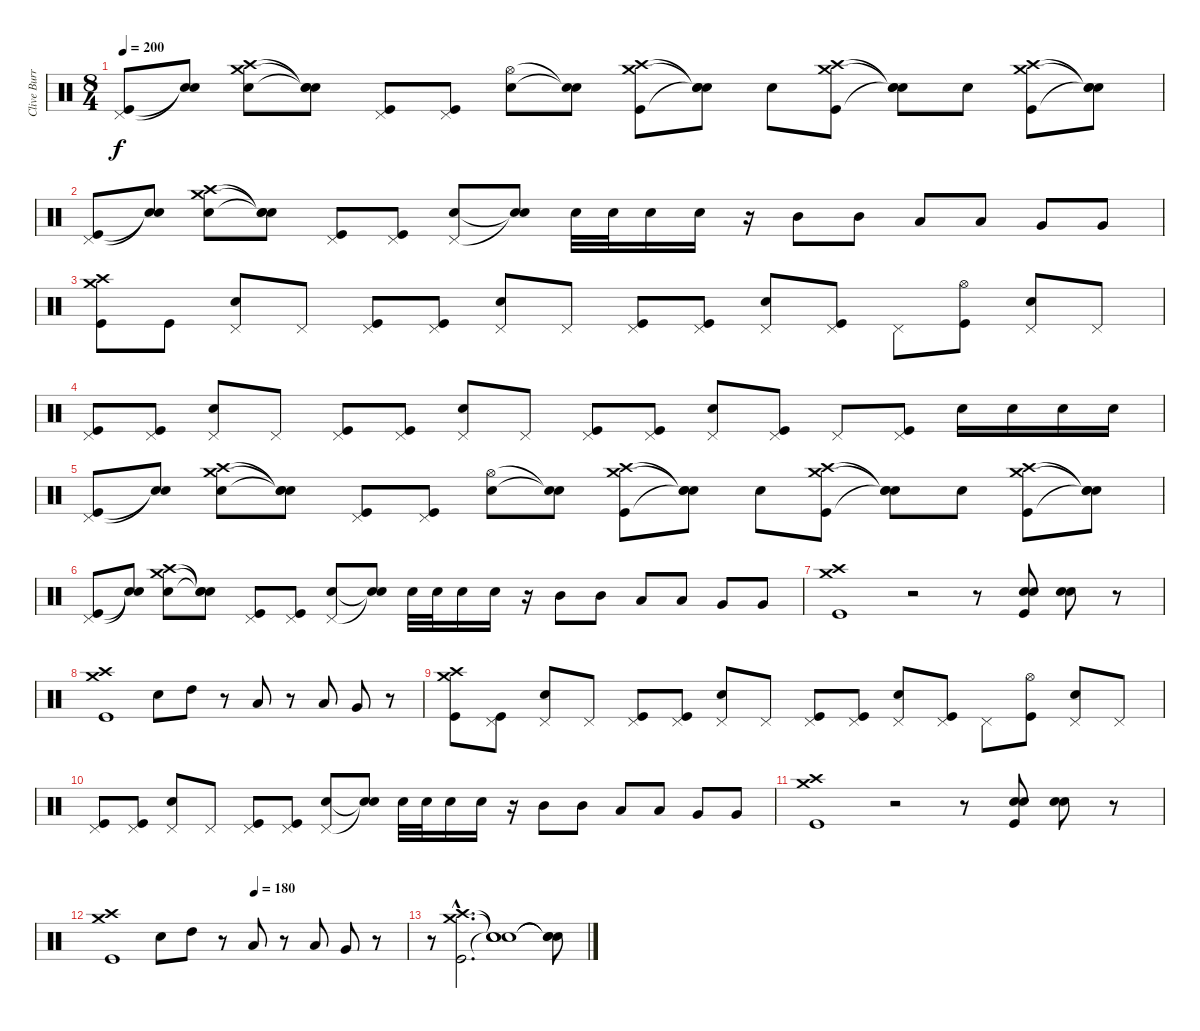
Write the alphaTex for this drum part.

\track ("Clive Burr" "Clive Burr") {instrument percussion}
\staff {score}
\articulation defaults
\ts (8 4)
\tempo 200
\clef neutral
\ks c
("Pedal Hi-Hat (hit)" "Kick (hit)").8{dy f} ("Snare (hit)"{t} "Snare (hit)"{t}).8 ("Crash medium (hit)" "Crash high (hit)" "Snare (hit) 2").8 ("Snare (hit)"{t} "Snare (hit)"{t} "Snare (hit)"{t}).8 ("Pedal Hi-Hat (hit)" "Kick (hit)").8 ("Pedal Hi-Hat (hit)" "Kick (hit)").8 ("Hi-Hat (open)" "Snare (hit) 2").8 ("Snare (hit)"{t} "Snare (hit)"{t}).8 ("Crash medium (hit)" "Crash high (hit)" "Kick (hit)").8 ("Snare (hit)"{t} "Snare (hit)"{t} "Snare (hit)"{t}).8 "Snare (hit) 2".8 ("Crash medium (hit)" "Crash high (hit)" "Kick (hit)").8 ("Snare (hit)"{t} "Snare (hit)"{t} "Snare (hit)"{t}).8 "Snare (hit) 2".8 ("Crash medium (hit)" "Crash high (hit)" "Kick (hit)").8 ("Snare (hit)"{t} "Snare (hit)"{t} "Snare (hit)"{t}).8 |
("Pedal Hi-Hat (hit)" "Kick (hit)").8 ("Snare (hit)"{t} "Snare (hit)"{t}).8 ("Crash medium (hit)" "Crash high (hit)" "Snare (hit) 2").8 ("Snare (hit)"{t} "Snare (hit)"{t} "Snare (hit)"{t}).8 ("Pedal Hi-Hat (hit)" "Kick (hit)").8 ("Pedal Hi-Hat (hit)" "Kick (hit)").8 ("Pedal Hi-Hat (hit)" "Snare (hit) 2").8 ("Snare (hit)"{t} "Snare (hit)"{t}).8 "Snare (hit) 2".32 "Snare (hit) 2".32 "Snare (hit) 2".16 "Snare (hit) 2".16 r.16 "Mid Tom (hit)".8 "Mid Tom (hit)".8 "Low Tom (hit)".8 "Low Tom (hit)".8 "Very Low Tom (hit)".8 "Very Low Tom (hit)".8 |
("Crash medium (hit)" "Crash high (hit)" "Kick (hit)").8 "Kick (hit)".8 ("Pedal Hi-Hat (hit)" "Snare (hit) 2").8 "Pedal Hi-Hat (hit)".8 ("Pedal Hi-Hat (hit)" "Kick (hit)").8 ("Pedal Hi-Hat (hit)" "Kick (hit)").8 ("Pedal Hi-Hat (hit)" "Snare (hit) 2").8 "Pedal Hi-Hat (hit)".8 ("Pedal Hi-Hat (hit)" "Kick (hit)").8 ("Pedal Hi-Hat (hit)" "Kick (hit)").8 ("Pedal Hi-Hat (hit)" "Snare (hit) 2").8 ("Pedal Hi-Hat (hit)" "Kick (hit)").8 "Pedal Hi-Hat (hit)".8 ("Hi-Hat (open)" "Kick (hit)").8 ("Pedal Hi-Hat (hit)" "Snare (hit) 2").8 "Pedal Hi-Hat (hit)".8 |
("Pedal Hi-Hat (hit)" "Kick (hit)").8 ("Pedal Hi-Hat (hit)" "Kick (hit)").8 ("Pedal Hi-Hat (hit)" "Snare (hit) 2").8 "Pedal Hi-Hat (hit)".8 ("Pedal Hi-Hat (hit)" "Kick (hit)").8 ("Pedal Hi-Hat (hit)" "Kick (hit)").8 ("Pedal Hi-Hat (hit)" "Snare (hit) 2").8 "Pedal Hi-Hat (hit)".8 ("Pedal Hi-Hat (hit)" "Kick (hit)").8 ("Pedal Hi-Hat (hit)" "Kick (hit)").8 ("Pedal Hi-Hat (hit)" "Snare (hit) 2").8 ("Pedal Hi-Hat (hit)" "Kick (hit)").8 "Pedal Hi-Hat (hit)".8 ("Pedal Hi-Hat (hit)" "Kick (hit)").8 "Snare (hit) 2".16 "Snare (hit) 2".16 "Snare (hit) 2".16 "Snare (hit) 2".16 |
("Pedal Hi-Hat (hit)" "Kick (hit)").8 ("Snare (hit)"{t} "Snare (hit)"{t}).8 ("Crash medium (hit)" "Crash high (hit)" "Snare (hit) 2").8 ("Snare (hit)"{t} "Snare (hit)"{t} "Snare (hit)"{t}).8 ("Pedal Hi-Hat (hit)" "Kick (hit)").8 ("Pedal Hi-Hat (hit)" "Kick (hit)").8 ("Hi-Hat (open)" "Snare (hit) 2").8 ("Snare (hit)"{t} "Snare (hit)"{t}).8 ("Crash medium (hit)" "Crash high (hit)" "Kick (hit)").8 ("Snare (hit)"{t} "Snare (hit)"{t} "Snare (hit)"{t}).8 "Snare (hit) 2".8 ("Crash medium (hit)" "Crash high (hit)" "Kick (hit)").8 ("Snare (hit)"{t} "Snare (hit)"{t} "Snare (hit)"{t}).8 "Snare (hit) 2".8 ("Crash medium (hit)" "Crash high (hit)" "Kick (hit)").8 ("Snare (hit)"{t} "Snare (hit)"{t} "Snare (hit)"{t}).8 |
("Pedal Hi-Hat (hit)" "Kick (hit)").8 ("Snare (hit)"{t} "Snare (hit)"{t}).8 ("Crash medium (hit)" "Crash high (hit)" "Snare (hit) 2").8 ("Snare (hit)"{t} "Snare (hit)"{t} "Snare (hit)"{t}).8 ("Pedal Hi-Hat (hit)" "Kick (hit)").8 ("Pedal Hi-Hat (hit)" "Kick (hit)").8 ("Pedal Hi-Hat (hit)" "Snare (hit) 2").8 ("Snare (hit)"{t} "Snare (hit)"{t}).8 "Snare (hit) 2".32 "Snare (hit) 2".32 "Snare (hit) 2".16 "Snare (hit) 2".16 r.16 "Mid Tom (hit)".8 "Mid Tom (hit)".8 "Low Tom (hit)".8 "Low Tom (hit)".8 "Very Low Tom (hit)".8 "Very Low Tom (hit)".8 |
("Crash medium (hit)" "Crash high (hit)" "Kick (hit)").1 r.2 r.8 ("Snare (hit) 2" "Snare (hit) 2" "Kick (hit)").8 ("Snare (hit) 2" "Snare (hit) 2").8 r.8 |
("Crash medium (hit)" "Crash high (hit)" "Kick (hit)").1 "Snare (hit) 2".8 "High Tom (hit)".8 r.8 "Low Tom (hit)".8 r.8 "Low Tom (hit)".8 "Very Low Tom (hit)".8 r.8 |
("Crash medium (hit)" "Crash high (hit)" "Kick (hit)").8 ("Pedal Hi-Hat (hit)" "Kick (hit)").8 ("Pedal Hi-Hat (hit)" "Snare (hit) 2").8 "Pedal Hi-Hat (hit)".8 ("Pedal Hi-Hat (hit)" "Kick (hit)").8 ("Pedal Hi-Hat (hit)" "Kick (hit)").8 ("Pedal Hi-Hat (hit)" "Snare (hit) 2").8 "Pedal Hi-Hat (hit)".8 ("Pedal Hi-Hat (hit)" "Kick (hit)").8 ("Pedal Hi-Hat (hit)" "Kick (hit)").8 ("Pedal Hi-Hat (hit)" "Snare (hit) 2").8 ("Pedal Hi-Hat (hit)" "Kick (hit)").8 "Pedal Hi-Hat (hit)".8 ("Hi-Hat (open)" "Kick (hit)").8 ("Pedal Hi-Hat (hit)" "Snare (hit) 2").8 "Pedal Hi-Hat (hit)".8 |
("Pedal Hi-Hat (hit)" "Kick (hit)").8 ("Pedal Hi-Hat (hit)" "Kick (hit)").8 ("Pedal Hi-Hat (hit)" "Snare (hit) 2").8 "Pedal Hi-Hat (hit)".8 ("Pedal Hi-Hat (hit)" "Kick (hit)").8 ("Pedal Hi-Hat (hit)" "Kick (hit)").8 ("Pedal Hi-Hat (hit)" "Snare (hit) 2").8 ("Snare (hit)"{t} "Snare (hit)"{t}).8 "Snare (hit) 2".32 "Snare (hit) 2".32 "Snare (hit) 2".16 "Snare (hit) 2".16 r.16 "Mid Tom (hit)".8 "Mid Tom (hit)".8 "Low Tom (hit)".8 "Low Tom (hit)".8 "Very Low Tom (hit)".8 "Very Low Tom (hit)".8 |
("Crash medium (hit)" "Crash high (hit)" "Kick (hit)").1 r.2 r.8 ("Snare (hit) 2" "Snare (hit) 2" "Kick (hit)").8 ("Snare (hit) 2" "Snare (hit) 2").8 r.8 |
\tempo (180 0.5)
("Crash medium (hit)" "Crash high (hit)" "Kick (hit)").1 "Snare (hit) 2".8 "High Tom (hit)".8 r.8 "Low Tom (hit)".8 r.8 "Low Tom (hit)".8 "Very Low Tom (hit)".8 r.8 |
r.8 ("Crash medium (hit)"{hac} "Crash high (hit)"{hac} "Kick (hit)"{hac}).2{d} ("Snare (hit)"{t} "Snare (hit)"{t} "Snare (hit)"{t}).1 ("Snare (hit)"{t} "Snare (hit)"{t} "Snare (hit)"{t}).8
